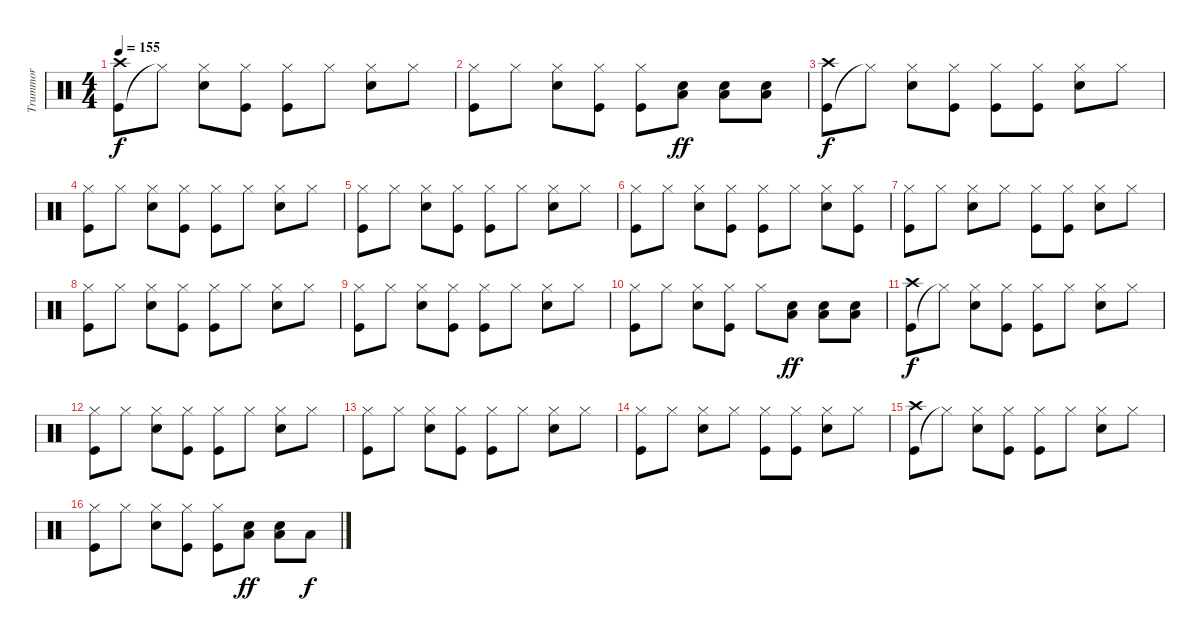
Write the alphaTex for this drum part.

\track ("Trummor" "Trummor") {instrument percussion}
\staff {score}
\articulation defaults
\ts (4 4)
\tempo 155
\clef neutral
\ks c
("Kick (hit)" "Crash high (hit)").8{dy f} "Hi-Hat (closed)"{t}.8 ("Snare (hit) 2" "Hi-Hat (closed)").8 ("Kick (hit)" "Hi-Hat (closed)").8 ("Kick (hit)" "Hi-Hat (closed)").8 "Hi-Hat (closed)".8 ("Snare (hit) 2" "Hi-Hat (closed)").8 "Hi-Hat (closed)".8 |
("Kick (hit)" "Hi-Hat (closed)").8 "Hi-Hat (closed)".8 ("Snare (hit) 2" "Hi-Hat (closed)").8 ("Kick (hit)" "Hi-Hat (closed)").8 ("Kick (hit)" "Hi-Hat (closed)").8 ("Snare (hit) 2" "Low Floor Tom (hit)").8{dy ff} ("Snare (hit) 2" "Low Floor Tom (hit)").8 ("Snare (hit) 2" "Low Floor Tom (hit)").8 |
("Kick (hit)" "Crash high (hit)").8{dy f} "Hi-Hat (closed)"{t}.8 ("Snare (hit) 2" "Hi-Hat (closed)").8 ("Kick (hit)" "Hi-Hat (closed)").8 ("Kick (hit)" "Hi-Hat (closed)").8 ("Kick (hit)" "Hi-Hat (closed)").8 ("Snare (hit) 2" "Hi-Hat (closed)").8 "Hi-Hat (closed)".8 |
("Kick (hit)" "Hi-Hat (closed)").8 "Hi-Hat (closed)".8 ("Snare (hit) 2" "Hi-Hat (closed)").8 ("Kick (hit)" "Hi-Hat (closed)").8 ("Kick (hit)" "Hi-Hat (closed)").8 "Hi-Hat (closed)".8 ("Snare (hit) 2" "Hi-Hat (closed)").8 "Hi-Hat (closed)".8 |
("Kick (hit)" "Hi-Hat (closed)").8 "Hi-Hat (closed)".8 ("Snare (hit) 2" "Hi-Hat (closed)").8 ("Kick (hit)" "Hi-Hat (closed)").8 ("Kick (hit)" "Hi-Hat (closed)").8 "Hi-Hat (closed)".8 ("Snare (hit) 2" "Hi-Hat (closed)").8 "Hi-Hat (closed)".8 |
("Kick (hit)" "Hi-Hat (closed)").8 "Hi-Hat (closed)".8 ("Snare (hit) 2" "Hi-Hat (closed)").8 ("Kick (hit)" "Hi-Hat (closed)").8 ("Kick (hit)" "Hi-Hat (closed)").8 "Hi-Hat (closed)".8 ("Snare (hit) 2" "Hi-Hat (closed)").8 ("Kick (hit)" "Hi-Hat (closed)").8 |
("Kick (hit)" "Hi-Hat (closed)").8 "Hi-Hat (closed)".8 ("Snare (hit) 2" "Hi-Hat (closed)").8 "Hi-Hat (closed)".8 ("Kick (hit)" "Hi-Hat (closed)").8 ("Kick (hit)" "Hi-Hat (closed)").8 ("Snare (hit) 2" "Hi-Hat (closed)").8 "Hi-Hat (closed)".8 |
("Kick (hit)" "Hi-Hat (closed)").8 "Hi-Hat (closed)".8 ("Snare (hit) 2" "Hi-Hat (closed)").8 ("Kick (hit)" "Hi-Hat (closed)").8 ("Kick (hit)" "Hi-Hat (closed)").8 "Hi-Hat (closed)".8 ("Snare (hit) 2" "Hi-Hat (closed)").8 "Hi-Hat (closed)".8 |
("Kick (hit)" "Hi-Hat (closed)").8 "Hi-Hat (closed)".8 ("Snare (hit) 2" "Hi-Hat (closed)").8 ("Kick (hit)" "Hi-Hat (closed)").8 ("Kick (hit)" "Hi-Hat (closed)").8 "Hi-Hat (closed)".8 ("Snare (hit) 2" "Hi-Hat (closed)").8 "Hi-Hat (closed)".8 |
("Kick (hit)" "Hi-Hat (closed)").8 "Hi-Hat (closed)".8 ("Snare (hit) 2" "Hi-Hat (closed)").8 ("Kick (hit)" "Hi-Hat (closed)").8 "Hi-Hat (closed)".8 ("Snare (hit) 2" "Low Floor Tom (hit)").8{dy ff} ("Snare (hit) 2" "Low Floor Tom (hit)").8 ("Snare (hit) 2" "Low Floor Tom (hit)").8 |
("Kick (hit)" "Crash high (hit)").8{dy f} "Hi-Hat (closed)"{t}.8 ("Snare (hit) 2" "Hi-Hat (closed)").8 ("Kick (hit)" "Hi-Hat (closed)").8 ("Kick (hit)" "Hi-Hat (closed)").8 "Hi-Hat (closed)".8 ("Snare (hit) 2" "Hi-Hat (closed)").8 "Hi-Hat (closed)".8 |
("Kick (hit)" "Hi-Hat (closed)").8 "Hi-Hat (closed)".8 ("Snare (hit) 2" "Hi-Hat (closed)").8 ("Kick (hit)" "Hi-Hat (closed)").8 ("Kick (hit)" "Hi-Hat (closed)").8 "Hi-Hat (closed)".8 ("Snare (hit) 2" "Hi-Hat (closed)").8 "Hi-Hat (closed)".8 |
("Kick (hit)" "Hi-Hat (closed)").8 "Hi-Hat (closed)".8 ("Snare (hit) 2" "Hi-Hat (closed)").8 ("Kick (hit)" "Hi-Hat (closed)").8 ("Kick (hit)" "Hi-Hat (closed)").8 "Hi-Hat (closed)".8 ("Snare (hit) 2" "Hi-Hat (closed)").8 "Hi-Hat (closed)".8 |
("Kick (hit)" "Hi-Hat (closed)").8 "Hi-Hat (closed)".8 ("Snare (hit) 2" "Hi-Hat (closed)").8 "Hi-Hat (closed)".8 ("Kick (hit)" "Hi-Hat (closed)").8 ("Kick (hit)" "Hi-Hat (closed)").8 ("Snare (hit) 2" "Hi-Hat (closed)").8 "Hi-Hat (closed)".8 |
("Kick (hit)" "Crash high (hit)").8 "Hi-Hat (closed)"{t}.8 ("Snare (hit) 2" "Hi-Hat (closed)").8 ("Kick (hit)" "Hi-Hat (closed)").8 ("Kick (hit)" "Hi-Hat (closed)").8 "Hi-Hat (closed)".8 ("Snare (hit) 2" "Hi-Hat (closed)").8 "Hi-Hat (closed)".8 |
("Kick (hit)" "Hi-Hat (closed)").8 "Hi-Hat (closed)".8 ("Snare (hit) 2" "Hi-Hat (closed)").8 ("Kick (hit)" "Hi-Hat (closed)").8 ("Kick (hit)" "Hi-Hat (closed)").8 ("Snare (hit) 2" "Low Floor Tom (hit)").8{dy ff} ("Snare (hit) 2" "Low Floor Tom (hit)").8 "Low Floor Tom (hit)".8{dy f}
